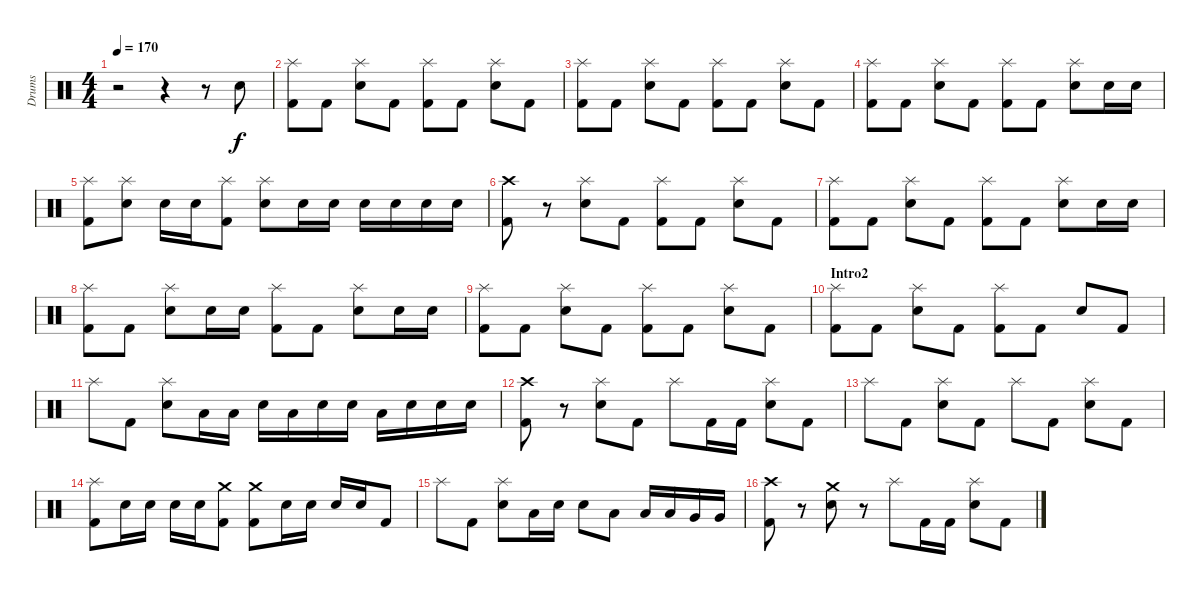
\track ("Drums" "Drums") {instrument percussion}
\staff {score}
\articulation defaults
\ts (4 4)
\tempo 170
\clef neutral
\ks c
r.2{dy f} r.4 r.8 "Electric Snare (hit)".8 |
("Splash (hit)" "Kick (hit) 2").8 "Kick (hit) 2".8 ("Splash (hit)" "Electric Snare (hit)").8 "Kick (hit) 2".8 ("Splash (hit)" "Kick (hit) 2").8 "Kick (hit) 2".8 ("Splash (hit)" "Electric Snare (hit)").8 "Kick (hit) 2".8 |
("Splash (hit)" "Kick (hit) 2").8 "Kick (hit) 2".8 ("Splash (hit)" "Electric Snare (hit)").8 "Kick (hit) 2".8 ("Splash (hit)" "Kick (hit) 2").8 "Kick (hit) 2".8 ("Splash (hit)" "Electric Snare (hit)").8 "Kick (hit) 2".8 |
("Splash (hit)" "Kick (hit) 2").8 "Kick (hit) 2".8 ("Splash (hit)" "Electric Snare (hit)").8 "Kick (hit) 2".8 ("Splash (hit)" "Kick (hit) 2").8 "Kick (hit) 2".8 ("Splash (hit)" "Electric Snare (hit)").8 "Electric Snare (hit)".16 "Electric Snare (hit)".16 |
("Splash (hit)" "Kick (hit) 2").8 ("Splash (hit)" "Electric Snare (hit)").8 "Electric Snare (hit)".16 "Electric Snare (hit)".16 ("Splash (hit)" "Kick (hit) 2").8 ("Splash (hit)" "Electric Snare (hit)").8 "Electric Snare (hit)".16 "Electric Snare (hit)".16 "Electric Snare (hit)".16 "Electric Snare (hit)".16 "Electric Snare (hit)".16 "Electric Snare (hit)".16 |
("Crash high (hit)" "Kick (hit) 2").8 r.8 ("Splash (hit)" "Electric Snare (hit)").8 "Kick (hit) 2".8 ("Splash (hit)" "Kick (hit) 2").8 "Kick (hit) 2".8 ("Splash (hit)" "Electric Snare (hit)").8 "Kick (hit) 2".8 |
("Splash (hit)" "Kick (hit) 2").8 "Kick (hit) 2".8 ("Splash (hit)" "Electric Snare (hit)").8 "Kick (hit) 2".8 ("Splash (hit)" "Kick (hit) 2").8 "Kick (hit) 2".8 ("Splash (hit)" "Electric Snare (hit)").8 "Electric Snare (hit)".16 "Electric Snare (hit)".16 |
("Splash (hit)" "Kick (hit) 2").8 "Kick (hit) 2".8 ("Splash (hit)" "Electric Snare (hit)").8 "Electric Snare (hit)".16 "Electric Snare (hit)".16 ("Splash (hit)" "Kick (hit) 2").8 "Kick (hit) 2".8 ("Splash (hit)" "Electric Snare (hit)").8 "Electric Snare (hit)".16 "Electric Snare (hit)".16 |
("Splash (hit)" "Kick (hit) 2").8 "Kick (hit) 2".8 ("Splash (hit)" "Electric Snare (hit)").8 "Kick (hit) 2".8 ("Splash (hit)" "Kick (hit) 2").8 "Kick (hit) 2".8 ("Splash (hit)" "Electric Snare (hit)").8 "Kick (hit) 2".8 |
\section ("" "Intro2")
("Splash (hit)" "Kick (hit) 2").8 "Kick (hit) 2".8 ("Splash (hit)" "Electric Snare (hit)").8 "Kick (hit) 2".8 ("Splash (hit)" "Kick (hit) 2").8 "Kick (hit) 2".8 "Electric Snare (hit)".8 "Kick (hit) 2".8 |
"Splash (hit)".8 "Kick (hit) 2".8 ("Splash (hit)" "Electric Snare (hit)").8 "Low Tom (hit)".16 "Low Tom (hit)".16 "Electric Snare (hit)".16 "Low Tom (hit)".16 "Electric Snare (hit)".16 "Electric Snare (hit)".16 "Low Tom (hit)".16 "Electric Snare (hit)".16 "Electric Snare (hit)".16 "Electric Snare (hit)".16 |
("Crash high (hit)" "Kick (hit) 2").8 r.8 ("Splash (hit)" "Electric Snare (hit)").8 "Kick (hit) 2".8 "Splash (hit)".8 "Kick (hit) 2".16 "Kick (hit) 2".16 ("Splash (hit)" "Electric Snare (hit)").8 "Kick (hit) 2".8 |
"Splash (hit)".8 "Kick (hit) 2".8 ("Splash (hit)" "Electric Snare (hit)").8 "Kick (hit) 2".8 "Splash (hit)".8 "Kick (hit) 2".8 ("Splash (hit)" "Electric Snare (hit)").8 "Kick (hit) 2".8 |
("Splash (hit)" "Kick (hit) 2").8 "Electric Snare (hit)".16 "Electric Snare (hit)".16 "Electric Snare (hit)".16 "Electric Snare (hit)".16 ("Crash medium (hit)" "Kick (hit) 2").8 ("Crash medium (hit)" "Kick (hit) 2").8 "Electric Snare (hit)".16 "Electric Snare (hit)".16 "Electric Snare (hit)".16 "Electric Snare (hit)".16 "Kick (hit) 2".8 |
"Splash (hit)".8 "Kick (hit) 2".8 ("Splash (hit)" "Electric Snare (hit)").8 "Low Tom (hit)".16 "Electric Snare (hit)".16 "Electric Snare (hit)".8 "Low Tom (hit)".8 "Low Tom (hit)".16 "Low Tom (hit)".16 "Very Low Tom (hit)".16 "Very Low Tom (hit)".16 |
("Crash high (hit)" "Kick (hit) 2").8 r.8 ("Crash medium (hit)" "Electric Snare (hit)").8 r.8 "Splash (hit)".8 "Kick (hit) 2".16 "Kick (hit) 2".16 ("Splash (hit)" "Electric Snare (hit)").8 "Kick (hit) 2".8
